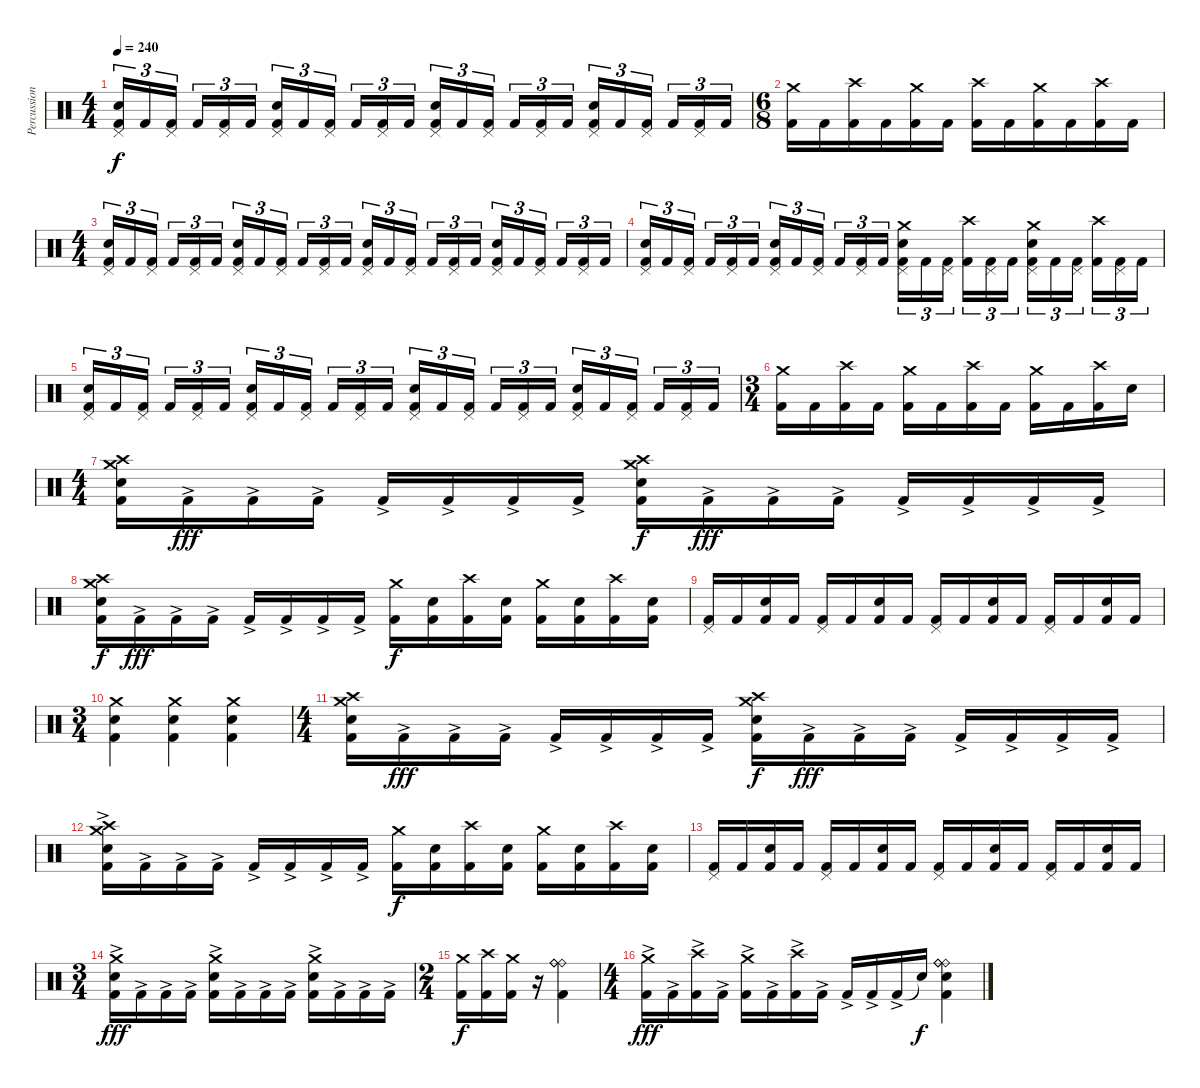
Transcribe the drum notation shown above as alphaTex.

\track ("Percussions" "Percussion") {instrument percussion}
\staff {score}
\articulation defaults
\ts (4 4)
\tempo 240
\clef neutral
\ks c
("Snare (hit) 2" "Pedal Hi-Hat (hit)" "Kick (hit) 2").16{tu (3 2) dy f} "Kick (hit) 2".16{tu (3 2)} ("Pedal Hi-Hat (hit)" "Kick (hit) 2").16{tu (3 2)} "Kick (hit) 2".16{tu (3 2)} ("Pedal Hi-Hat (hit)" "Kick (hit) 2").16{tu (3 2)} "Kick (hit) 2".16{tu (3 2)} ("Snare (hit) 2" "Pedal Hi-Hat (hit)" "Kick (hit) 2").16{tu (3 2)} "Kick (hit) 2".16{tu (3 2)} ("Pedal Hi-Hat (hit)" "Kick (hit) 2").16{tu (3 2)} "Kick (hit) 2".16{tu (3 2)} ("Pedal Hi-Hat (hit)" "Kick (hit) 2").16{tu (3 2)} "Kick (hit) 2".16{tu (3 2)} ("Snare (hit) 2" "Pedal Hi-Hat (hit)" "Kick (hit) 2").16{tu (3 2)} "Kick (hit) 2".16{tu (3 2)} ("Pedal Hi-Hat (hit)" "Kick (hit) 2").16{tu (3 2)} "Kick (hit) 2".16{tu (3 2)} ("Pedal Hi-Hat (hit)" "Kick (hit) 2").16{tu (3 2)} "Kick (hit) 2".16{tu (3 2)} ("Snare (hit) 2" "Pedal Hi-Hat (hit)" "Kick (hit) 2").16{tu (3 2)} "Kick (hit) 2".16{tu (3 2)} ("Pedal Hi-Hat (hit)" "Kick (hit) 2").16{tu (3 2)} "Kick (hit) 2".16{tu (3 2)} ("Pedal Hi-Hat (hit)" "Kick (hit) 2").16{tu (3 2)} "Kick (hit) 2".16{tu (3 2)} |
\ts (6 8)
("Crash medium (hit)" "Kick (hit) 2").16 "Kick (hit) 2".16 ("Crash high (hit)" "Kick (hit) 2").16 "Kick (hit) 2".16 ("Crash medium (hit)" "Kick (hit) 2").16 "Kick (hit) 2".16 ("Crash high (hit)" "Kick (hit) 2").16 "Kick (hit) 2".16 ("Crash medium (hit)" "Kick (hit) 2").16 "Kick (hit) 2".16 ("Crash high (hit)" "Kick (hit) 2").16 "Kick (hit) 2".16 |
\ts (4 4)
("Snare (hit) 2" "Pedal Hi-Hat (hit)" "Kick (hit) 2").16{tu (3 2)} "Kick (hit) 2".16{tu (3 2)} ("Pedal Hi-Hat (hit)" "Kick (hit) 2").16{tu (3 2)} "Kick (hit) 2".16{tu (3 2)} ("Pedal Hi-Hat (hit)" "Kick (hit) 2").16{tu (3 2)} "Kick (hit) 2".16{tu (3 2)} ("Snare (hit) 2" "Pedal Hi-Hat (hit)" "Kick (hit) 2").16{tu (3 2)} "Kick (hit) 2".16{tu (3 2)} ("Pedal Hi-Hat (hit)" "Kick (hit) 2").16{tu (3 2)} "Kick (hit) 2".16{tu (3 2)} ("Pedal Hi-Hat (hit)" "Kick (hit) 2").16{tu (3 2)} "Kick (hit) 2".16{tu (3 2)} ("Snare (hit) 2" "Pedal Hi-Hat (hit)" "Kick (hit) 2").16{tu (3 2)} "Kick (hit) 2".16{tu (3 2)} ("Pedal Hi-Hat (hit)" "Kick (hit) 2").16{tu (3 2)} "Kick (hit) 2".16{tu (3 2)} ("Pedal Hi-Hat (hit)" "Kick (hit) 2").16{tu (3 2)} "Kick (hit) 2".16{tu (3 2)} ("Snare (hit) 2" "Pedal Hi-Hat (hit)" "Kick (hit) 2").16{tu (3 2)} "Kick (hit) 2".16{tu (3 2)} ("Pedal Hi-Hat (hit)" "Kick (hit) 2").16{tu (3 2)} "Kick (hit) 2".16{tu (3 2)} ("Pedal Hi-Hat (hit)" "Kick (hit) 2").16{tu (3 2)} "Kick (hit) 2".16{tu (3 2)} |
("Snare (hit) 2" "Pedal Hi-Hat (hit)" "Kick (hit) 2").16{tu (3 2)} "Kick (hit) 2".16{tu (3 2)} ("Pedal Hi-Hat (hit)" "Kick (hit) 2").16{tu (3 2)} "Kick (hit) 2".16{tu (3 2)} ("Pedal Hi-Hat (hit)" "Kick (hit) 2").16{tu (3 2)} "Kick (hit) 2".16{tu (3 2)} ("Snare (hit) 2" "Pedal Hi-Hat (hit)" "Kick (hit) 2").16{tu (3 2)} "Kick (hit) 2".16{tu (3 2)} ("Pedal Hi-Hat (hit)" "Kick (hit) 2").16{tu (3 2)} "Kick (hit) 2".16{tu (3 2)} ("Pedal Hi-Hat (hit)" "Kick (hit) 2").16{tu (3 2)} "Kick (hit) 2".16{tu (3 2)} ("Crash medium (hit)" "Snare (hit) 2" "Pedal Hi-Hat (hit)" "Kick (hit) 2").16{tu (3 2)} "Kick (hit) 2".16{tu (3 2)} ("Pedal Hi-Hat (hit)" "Kick (hit) 2").16{tu (3 2)} ("Crash high (hit)" "Kick (hit) 2").16{tu (3 2)} ("Pedal Hi-Hat (hit)" "Kick (hit) 2").16{tu (3 2)} "Kick (hit) 2".16{tu (3 2)} ("Crash medium (hit)" "Snare (hit) 2" "Pedal Hi-Hat (hit)" "Kick (hit) 2").16{tu (3 2)} "Kick (hit) 2".16{tu (3 2)} ("Pedal Hi-Hat (hit)" "Kick (hit) 2").16{tu (3 2)} ("Crash high (hit)" "Kick (hit) 2").16{tu (3 2)} ("Pedal Hi-Hat (hit)" "Kick (hit) 2").16{tu (3 2)} "Kick (hit) 2".16{tu (3 2)} |
("Snare (hit) 2" "Pedal Hi-Hat (hit)" "Kick (hit) 2").16{tu (3 2)} "Kick (hit) 2".16{tu (3 2)} ("Pedal Hi-Hat (hit)" "Kick (hit) 2").16{tu (3 2)} "Kick (hit) 2".16{tu (3 2)} ("Pedal Hi-Hat (hit)" "Kick (hit) 2").16{tu (3 2)} "Kick (hit) 2".16{tu (3 2)} ("Snare (hit) 2" "Pedal Hi-Hat (hit)" "Kick (hit) 2").16{tu (3 2)} "Kick (hit) 2".16{tu (3 2)} ("Pedal Hi-Hat (hit)" "Kick (hit) 2").16{tu (3 2)} "Kick (hit) 2".16{tu (3 2)} ("Pedal Hi-Hat (hit)" "Kick (hit) 2").16{tu (3 2)} "Kick (hit) 2".16{tu (3 2)} ("Snare (hit) 2" "Pedal Hi-Hat (hit)" "Kick (hit) 2").16{tu (3 2)} "Kick (hit) 2".16{tu (3 2)} ("Pedal Hi-Hat (hit)" "Kick (hit) 2").16{tu (3 2)} "Kick (hit) 2".16{tu (3 2)} ("Pedal Hi-Hat (hit)" "Kick (hit) 2").16{tu (3 2)} "Kick (hit) 2".16{tu (3 2)} ("Snare (hit) 2" "Pedal Hi-Hat (hit)" "Kick (hit) 2").16{tu (3 2)} "Kick (hit) 2".16{tu (3 2)} ("Pedal Hi-Hat (hit)" "Kick (hit) 2").16{tu (3 2)} "Kick (hit) 2".16{tu (3 2)} ("Pedal Hi-Hat (hit)" "Kick (hit) 2").16{tu (3 2)} "Kick (hit) 2".16{tu (3 2)} |
\ts (3 4)
("Crash medium (hit)" "Kick (hit) 2").16 "Kick (hit) 2".16 ("Crash high (hit)" "Kick (hit) 2").16 "Kick (hit) 2".16 ("Crash medium (hit)" "Kick (hit) 2").16 "Kick (hit) 2".16 ("Crash high (hit)" "Kick (hit) 2").16 "Kick (hit) 2".16 ("Crash medium (hit)" "Kick (hit) 2").16 "Kick (hit) 2".16 ("Crash high (hit)" "Kick (hit) 2").16 "Snare (hit)".16 |
\ts (4 4)
("Snare (hit) 2" "Crash high (hit)" "Crash medium (hit)" "Kick (hit) 2").16 "Kick (hit) 2"{ac}.16{dy fff} "Kick (hit) 2"{ac}.16 "Kick (hit) 2"{ac}.16 "Kick (hit) 2"{ac}.16 "Kick (hit) 2"{ac}.16 "Kick (hit) 2"{ac}.16 "Kick (hit) 2"{ac}.16 ("Snare (hit) 2" "Crash high (hit)" "Crash medium (hit)" "Kick (hit) 2").16{dy f} "Kick (hit) 2"{ac}.16{dy fff} "Kick (hit) 2"{ac}.16 "Kick (hit) 2"{ac}.16 "Kick (hit) 2"{ac}.16 "Kick (hit) 2"{ac}.16 "Kick (hit) 2"{ac}.16 "Kick (hit) 2"{ac}.16 |
("Snare (hit) 2" "Crash high (hit)" "Crash medium (hit)" "Kick (hit) 2").16{dy f} "Kick (hit) 2"{ac}.16{dy fff} "Kick (hit) 2"{ac}.16 "Kick (hit) 2"{ac}.16 "Kick (hit) 2"{ac}.16 "Kick (hit) 2"{ac}.16 "Kick (hit) 2"{ac}.16 "Kick (hit) 2"{ac}.16 ("Crash medium (hit)" "Kick (hit) 2").16{dy f} ("Snare (hit) 2" "Kick (hit) 2").16 ("Crash high (hit)" "Kick (hit) 2").16 ("Snare (hit) 2" "Kick (hit) 2").16 ("Crash medium (hit)" "Kick (hit) 2").16 ("Snare (hit) 2" "Kick (hit) 2").16 ("Crash high (hit)" "Kick (hit) 2").16 ("Snare (hit) 2" "Kick (hit) 2").16 |
("Pedal Hi-Hat (hit)" "Kick (hit) 2").16 "Kick (hit) 2".16 ("Snare (hit) 2" "Kick (hit) 2").16 "Kick (hit) 2".16 ("Pedal Hi-Hat (hit)" "Kick (hit) 2").16 "Kick (hit) 2".16 ("Snare (hit) 2" "Kick (hit) 2").16 "Kick (hit) 2".16 ("Pedal Hi-Hat (hit)" "Kick (hit) 2").16 "Kick (hit) 2".16 ("Snare (hit) 2" "Kick (hit) 2").16 "Kick (hit) 2".16 ("Pedal Hi-Hat (hit)" "Kick (hit) 2").16 "Kick (hit) 2".16 ("Snare (hit) 2" "Kick (hit) 2").16 "Kick (hit) 2".16 |
\ts (3 4)
("Crash medium (hit)" "Snare (hit) 2" "Kick (hit) 2").4 ("Crash medium (hit)" "Snare (hit) 2" "Kick (hit) 2").4 ("Crash medium (hit)" "Snare (hit) 2" "Kick (hit) 2").4 |
\ts (4 4)
("Snare (hit) 2" "Crash high (hit)" "Crash medium (hit)" "Kick (hit) 2").16 "Kick (hit) 2"{ac}.16{dy fff} "Kick (hit) 2"{ac}.16 "Kick (hit) 2"{ac}.16 "Kick (hit) 2"{ac}.16 "Kick (hit) 2"{ac}.16 "Kick (hit) 2"{ac}.16 "Kick (hit) 2"{ac}.16 ("Snare (hit) 2" "Crash high (hit)" "Crash medium (hit)" "Kick (hit) 2").16{dy f} "Kick (hit) 2"{ac}.16{dy fff} "Kick (hit) 2"{ac}.16 "Kick (hit) 2"{ac}.16 "Kick (hit) 2"{ac}.16 "Kick (hit) 2"{ac}.16 "Kick (hit) 2"{ac}.16 "Kick (hit) 2"{ac}.16 |
("Snare (hit) 2" "Crash high (hit)" "Crash medium (hit)" "Kick (hit) 2"{ac}).16 "Kick (hit) 2"{ac}.16 "Kick (hit) 2"{ac}.16 "Kick (hit) 2"{ac}.16 "Kick (hit) 2"{ac}.16 "Kick (hit) 2"{ac}.16 "Kick (hit) 2"{ac}.16 "Kick (hit) 2"{ac}.16 ("Crash medium (hit)" "Kick (hit) 2").16{dy f} ("Snare (hit) 2" "Kick (hit) 2").16 ("Crash high (hit)" "Kick (hit) 2").16 ("Snare (hit) 2" "Kick (hit) 2").16 ("Crash medium (hit)" "Kick (hit) 2").16 ("Snare (hit) 2" "Kick (hit) 2").16 ("Crash high (hit)" "Kick (hit) 2").16 ("Snare (hit) 2" "Kick (hit) 2").16 |
("Pedal Hi-Hat (hit)" "Kick (hit) 2").16 "Kick (hit) 2".16 ("Snare (hit) 2" "Kick (hit) 2").16 "Kick (hit) 2".16 ("Pedal Hi-Hat (hit)" "Kick (hit) 2").16 "Kick (hit) 2".16 ("Snare (hit) 2" "Kick (hit) 2").16 "Kick (hit) 2".16 ("Pedal Hi-Hat (hit)" "Kick (hit) 2").16 "Kick (hit) 2".16 ("Snare (hit) 2" "Kick (hit) 2").16 "Kick (hit) 2".16 ("Pedal Hi-Hat (hit)" "Kick (hit) 2").16 "Kick (hit) 2".16 ("Snare (hit) 2" "Kick (hit) 2").16 "Kick (hit) 2".16 |
\ts (3 4)
("Snare (hit) 2" "Crash medium (hit)" "Kick (hit) 2"{ac}).16{dy fff} "Kick (hit) 2"{ac}.16 "Kick (hit) 2"{ac}.16 "Kick (hit) 2"{ac}.16 ("Snare (hit) 2" "Crash medium (hit)" "Kick (hit) 2"{ac}).16 "Kick (hit) 2"{ac}.16 "Kick (hit) 2"{ac}.16 "Kick (hit) 2"{ac}.16 ("Snare (hit) 2" "Crash medium (hit)" "Kick (hit) 2"{ac}).16 "Kick (hit) 2"{ac}.16 "Kick (hit) 2"{ac}.16 "Kick (hit) 2"{ac}.16 |
\ts (2 4)
("Crash medium (hit)" "Kick (hit) 2").16{dy f} ("Crash high (hit)" "Kick (hit) 2").16 ("Crash medium (hit)" "Kick (hit) 2").16 r.16 ("Ride (bell)" "Ride (bell)" "Ride (bell)" "Kick (hit) 2").4 |
\ts (4 4)
("Crash medium (hit)" "Kick (hit) 2"{ac}).16{dy fff} "Kick (hit) 2"{ac}.16 ("Crash high (hit)" "Kick (hit) 2"{ac}).16 "Kick (hit) 2"{ac}.16 ("Crash medium (hit)" "Kick (hit) 2"{ac}).16 "Kick (hit) 2"{ac}.16 ("Crash high (hit)" "Kick (hit) 2"{ac}).16 "Kick (hit) 2"{ac}.16 "Kick (hit) 2"{ac}.16 "Kick (hit) 2"{ac}.16 "Kick (hit) 2"{ac}.16 "Snare (hit)"{t}.16{dy f} ("Snare (hit) 2" "Ride (bell)" "Ride (bell)" "Ride (bell)" "Kick (hit) 2").4
